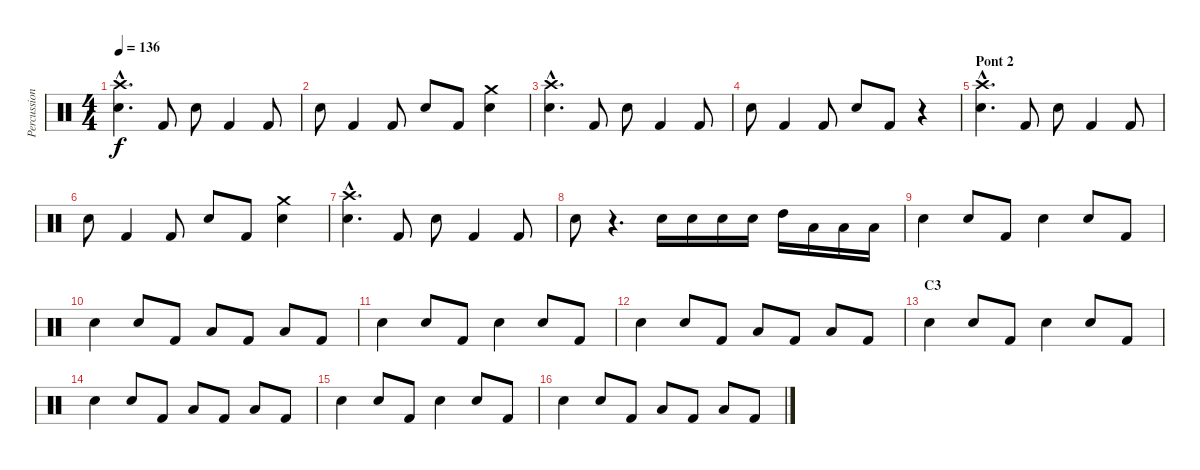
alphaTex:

\track ("Percussions" "Percussion") {instrument percussion}
\staff {score}
\articulation defaults
\ts (4 4)
\tempo 136
\clef neutral
\ks c
("Crash high (hit)"{hac} "Snare (hit) 2"{hac}).4{d dy f} "Kick (hit) 2".8 "Snare (hit) 2".8 "Kick (hit) 2".4 "Kick (hit) 2".8 |
"Snare (hit) 2".8 "Kick (hit) 2".4 "Kick (hit) 2".8 "Snare (hit) 2".8 "Kick (hit) 2".8 ("Crash medium (hit)" "Snare (hit) 2").4 |
("Crash high (hit)"{hac} "Snare (hit) 2"{hac}).4{d} "Kick (hit) 2".8 "Snare (hit) 2".8 "Kick (hit) 2".4 "Kick (hit) 2".8 |
"Snare (hit) 2".8 "Kick (hit) 2".4 "Kick (hit) 2".8 "Snare (hit) 2".8 "Kick (hit) 2".8 r.4 |
\section ("" "Pont 2")
("Crash high (hit)"{hac} "Snare (hit) 2"{hac}).4{d} "Kick (hit) 2".8 "Snare (hit) 2".8 "Kick (hit) 2".4 "Kick (hit) 2".8 |
"Snare (hit) 2".8 "Kick (hit) 2".4 "Kick (hit) 2".8 "Snare (hit) 2".8 "Kick (hit) 2".8 ("Crash medium (hit)" "Snare (hit) 2").4 |
("Crash high (hit)"{hac} "Snare (hit) 2"{hac}).4{d} "Kick (hit) 2".8 "Snare (hit) 2".8 "Kick (hit) 2".4 "Kick (hit) 2".8 |
"Snare (hit) 2".8 r.4{d} "Snare (hit) 2".16 "Snare (hit) 2".16 "Snare (hit) 2".16 "Snare (hit) 2".16 "High Tom (hit)".16 "Low Tom (hit)".16 "Low Floor Tom (hit)".16 "Low Floor Tom (hit)".16 |
"Electric Snare (hit)".4 "Snare (hit) 2".8 "Kick (hit) 2".8 "Snare (hit) 2".4 "Snare (hit) 2".8 "Kick (hit) 2".8 |
"Snare (hit) 2".4 "Snare (hit) 2".8 "Kick (hit) 2".8 "Low Tom (hit)".8 "Kick (hit) 2".8 "Low Floor Tom (hit)".8 "Kick (hit) 2".8 |
"Snare (hit) 2".4 "Snare (hit) 2".8 "Kick (hit) 2".8 "Snare (hit) 2".4 "Snare (hit) 2".8 "Kick (hit) 2".8 |
"Snare (hit) 2".4 "Snare (hit) 2".8 "Kick (hit) 2".8 "Low Tom (hit)".8 "Kick (hit) 2".8 "Low Floor Tom (hit)".8 "Kick (hit) 2".8 |
\section ("" "C3")
"Snare (hit) 2".4 "Snare (hit) 2".8 "Kick (hit) 2".8 "Snare (hit) 2".4 "Snare (hit) 2".8 "Kick (hit) 2".8 |
"Snare (hit) 2".4 "Snare (hit) 2".8 "Kick (hit) 2".8 "Low Tom (hit)".8 "Kick (hit) 2".8 "Low Floor Tom (hit)".8 "Kick (hit) 2".8 |
"Snare (hit) 2".4 "Snare (hit) 2".8 "Kick (hit) 2".8 "Snare (hit) 2".4 "Snare (hit) 2".8 "Kick (hit) 2".8 |
"Snare (hit) 2".4 "Snare (hit) 2".8 "Kick (hit) 2".8 "Low Tom (hit)".8 "Kick (hit) 2".8 "Low Floor Tom (hit)".8 "Kick (hit) 2".8
